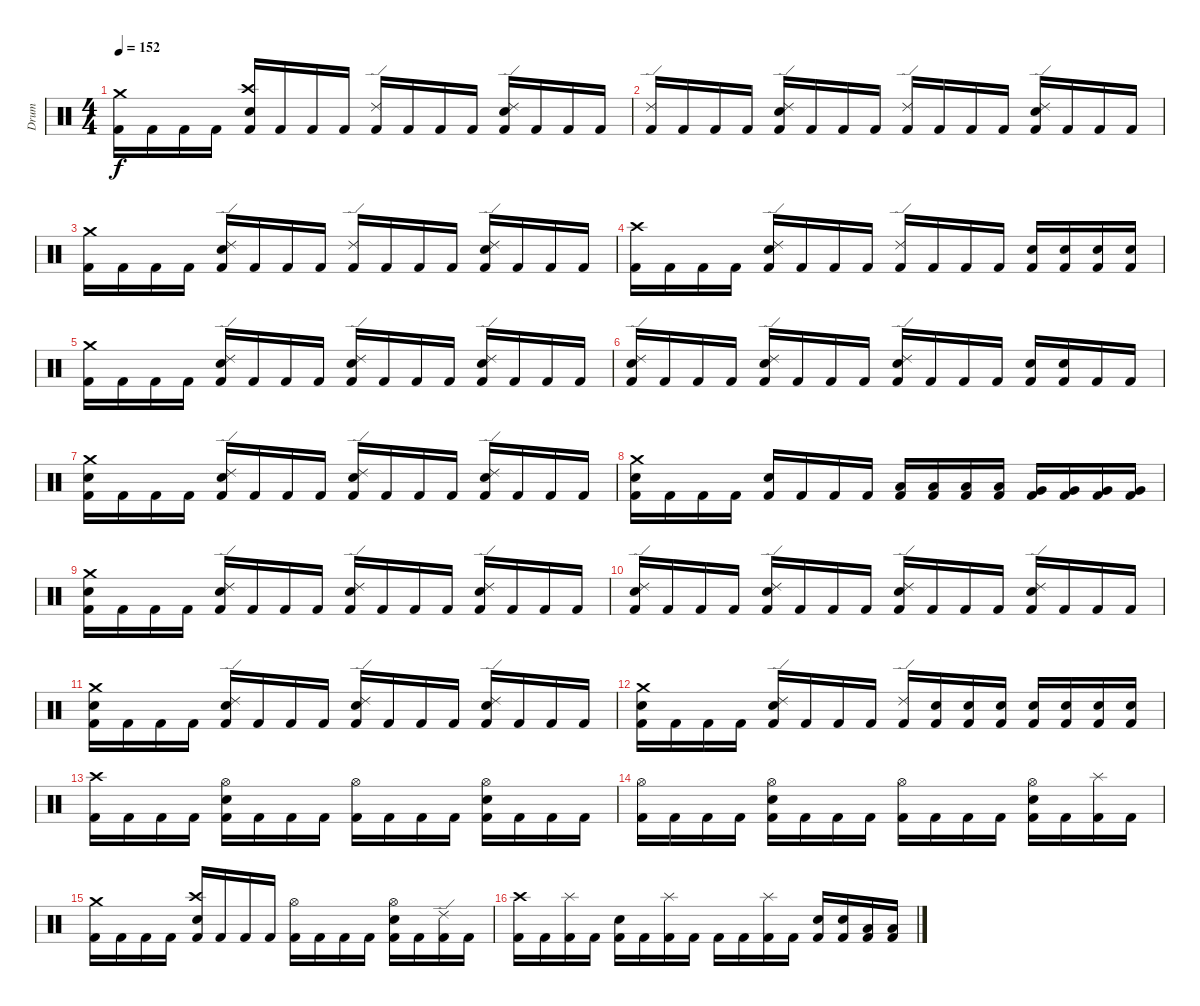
\track ("Drum" "Drum") {instrument percussion}
\staff {score}
\articulation defaults
\ts (4 4)
\tempo 152
\clef neutral
\ks c
("Crash medium (hit)" "Kick (hit) 2").16{dy f} "Kick (hit) 2".16 "Kick (hit) 2".16 "Kick (hit) 2".16 ("Crash high (hit)" "Snare (hit) 2" "Kick (hit) 2").16 "Kick (hit) 2".16 "Kick (hit) 2".16 "Kick (hit) 2".16 ("Ride (edge) 2" "Kick (hit) 2").16 "Kick (hit) 2".16 "Kick (hit) 2".16 "Kick (hit) 2".16 ("Ride (edge) 2" "Snare (hit) 2" "Kick (hit) 2").16 "Kick (hit) 2".16 "Kick (hit) 2".16 "Kick (hit) 2".16 |
("Ride (edge) 2" "Kick (hit) 2").16 "Kick (hit) 2".16 "Kick (hit) 2".16 "Kick (hit) 2".16 ("Ride (edge) 2" "Snare (hit) 2" "Kick (hit) 2").16 "Kick (hit) 2".16 "Kick (hit) 2".16 "Kick (hit) 2".16 ("Ride (edge) 2" "Kick (hit) 2").16 "Kick (hit) 2".16 "Kick (hit) 2".16 "Kick (hit) 2".16 ("Ride (edge) 2" "Snare (hit) 2" "Kick (hit) 2").16 "Kick (hit) 2".16 "Kick (hit) 2".16 "Kick (hit) 2".16 |
("Crash medium (hit)" "Kick (hit) 2").16 "Kick (hit) 2".16 "Kick (hit) 2".16 "Kick (hit) 2".16 ("Ride (edge) 2" "Snare (hit) 2" "Kick (hit) 2").16 "Kick (hit) 2".16 "Kick (hit) 2".16 "Kick (hit) 2".16 ("Ride (edge) 2" "Kick (hit) 2").16 "Kick (hit) 2".16 "Kick (hit) 2".16 "Kick (hit) 2".16 ("Ride (edge) 2" "Snare (hit) 2" "Kick (hit) 2").16 "Kick (hit) 2".16 "Kick (hit) 2".16 "Kick (hit) 2".16 |
("Crash high (hit)" "Kick (hit) 2").16 "Kick (hit) 2".16 "Kick (hit) 2".16 "Kick (hit) 2".16 ("Ride (edge) 2" "Snare (hit) 2" "Kick (hit) 2").16 "Kick (hit) 2".16 "Kick (hit) 2".16 "Kick (hit) 2".16 ("Ride (edge) 2" "Kick (hit) 2").16 "Kick (hit) 2".16 "Kick (hit) 2".16 "Kick (hit) 2".16 ("Snare (hit) 2" "Kick (hit) 2").16 ("Snare (hit) 2" "Kick (hit) 2").16 ("Snare (hit) 2" "Kick (hit) 2").16 ("Snare (hit) 2" "Kick (hit) 2").16 |
("Crash medium (hit)" "Kick (hit) 2").16 "Kick (hit) 2".16 "Kick (hit) 2".16 "Kick (hit) 2".16 ("Ride (edge) 2" "Snare (hit) 2" "Kick (hit) 2").16 "Kick (hit) 2".16 "Kick (hit) 2".16 "Kick (hit) 2".16 ("Ride (edge) 2" "Snare (hit) 2" "Kick (hit) 2").16 "Kick (hit) 2".16 "Kick (hit) 2".16 "Kick (hit) 2".16 ("Ride (edge) 2" "Snare (hit) 2" "Kick (hit) 2").16 "Kick (hit) 2".16 "Kick (hit) 2".16 "Kick (hit) 2".16 |
("Ride (edge) 2" "Snare (hit) 2" "Kick (hit) 2").16 "Kick (hit) 2".16 "Kick (hit) 2".16 "Kick (hit) 2".16 ("Ride (edge) 2" "Snare (hit) 2" "Kick (hit) 2").16 "Kick (hit) 2".16 "Kick (hit) 2".16 "Kick (hit) 2".16 ("Ride (edge) 2" "Snare (hit) 2" "Kick (hit) 2").16 "Kick (hit) 2".16 "Kick (hit) 2".16 "Kick (hit) 2".16 ("Snare (hit) 2" "Kick (hit) 2").16 ("Snare (hit) 2" "Kick (hit) 2").16 "Kick (hit) 2".16 "Kick (hit) 2".16 |
("Crash medium (hit)" "Snare (hit) 2" "Kick (hit) 2").16 "Kick (hit) 2".16 "Kick (hit) 2".16 "Kick (hit) 2".16 ("Ride (edge) 2" "Snare (hit) 2" "Kick (hit) 2").16 "Kick (hit) 2".16 "Kick (hit) 2".16 "Kick (hit) 2".16 ("Ride (edge) 2" "Snare (hit) 2" "Kick (hit) 2").16 "Kick (hit) 2".16 "Kick (hit) 2".16 "Kick (hit) 2".16 ("Ride (edge) 2" "Snare (hit) 2" "Kick (hit) 2").16 "Kick (hit) 2".16 "Kick (hit) 2".16 "Kick (hit) 2".16 |
("Crash medium (hit)" "Snare (hit) 2" "Kick (hit) 2").16 "Kick (hit) 2".16 "Kick (hit) 2".16 "Kick (hit) 2".16 ("Snare (hit) 2" "Kick (hit) 2").16 "Kick (hit) 2".16 "Kick (hit) 2".16 "Kick (hit) 2".16 ("Low Tom (hit)" "Kick (hit) 2").16 ("Low Tom (hit)" "Kick (hit) 2").16 ("Low Tom (hit)" "Kick (hit) 2").16 ("Low Tom (hit)" "Kick (hit) 2").16 ("Very Low Tom (hit)" "Kick (hit) 2").16 ("Very Low Tom (hit)" "Kick (hit) 2").16 ("Very Low Tom (hit)" "Kick (hit) 2").16 ("Very Low Tom (hit)" "Kick (hit) 2").16 |
("Crash medium (hit)" "Snare (hit) 2" "Kick (hit) 2").16 "Kick (hit) 2".16 "Kick (hit) 2".16 "Kick (hit) 2".16 ("Ride (edge) 2" "Snare (hit) 2" "Kick (hit) 2").16 "Kick (hit) 2".16 "Kick (hit) 2".16 "Kick (hit) 2".16 ("Ride (edge) 2" "Snare (hit) 2" "Kick (hit) 2").16 "Kick (hit) 2".16 "Kick (hit) 2".16 "Kick (hit) 2".16 ("Ride (edge) 2" "Snare (hit) 2" "Kick (hit) 2").16 "Kick (hit) 2".16 "Kick (hit) 2".16 "Kick (hit) 2".16 |
("Ride (edge) 2" "Snare (hit) 2" "Kick (hit) 2").16 "Kick (hit) 2".16 "Kick (hit) 2".16 "Kick (hit) 2".16 ("Ride (edge) 2" "Snare (hit) 2" "Kick (hit) 2").16 "Kick (hit) 2".16 "Kick (hit) 2".16 "Kick (hit) 2".16 ("Ride (edge) 2" "Snare (hit) 2" "Kick (hit) 2").16 "Kick (hit) 2".16 "Kick (hit) 2".16 "Kick (hit) 2".16 ("Ride (edge) 2" "Snare (hit) 2" "Kick (hit) 2").16 "Kick (hit) 2".16 "Kick (hit) 2".16 "Kick (hit) 2".16 |
("Crash medium (hit)" "Snare (hit) 2" "Kick (hit) 2").16 "Kick (hit) 2".16 "Kick (hit) 2".16 "Kick (hit) 2".16 ("Ride (edge) 2" "Snare (hit) 2" "Kick (hit) 2").16 "Kick (hit) 2".16 "Kick (hit) 2".16 "Kick (hit) 2".16 ("Ride (edge) 2" "Snare (hit) 2" "Kick (hit) 2").16 "Kick (hit) 2".16 "Kick (hit) 2".16 "Kick (hit) 2".16 ("Ride (edge) 2" "Snare (hit) 2" "Kick (hit) 2").16 "Kick (hit) 2".16 "Kick (hit) 2".16 "Kick (hit) 2".16 |
("Crash medium (hit)" "Snare (hit) 2" "Kick (hit) 2").16 "Kick (hit) 2".16 "Kick (hit) 2".16 "Kick (hit) 2".16 ("Ride (edge) 2" "Snare (hit) 2" "Kick (hit) 2").16 "Kick (hit) 2".16 "Kick (hit) 2".16 "Kick (hit) 2".16 ("Ride (edge) 2" "Kick (hit) 2").16 ("Snare (hit) 2" "Kick (hit) 2").16 ("Snare (hit) 2" "Kick (hit) 2").16 ("Snare (hit) 2" "Kick (hit) 2").16 ("Snare (hit) 2" "Kick (hit) 2").16 ("Snare (hit) 2" "Kick (hit) 2").16 ("Snare (hit) 2" "Kick (hit) 2").16 ("Snare (hit) 2" "Kick (hit) 2").16 |
("Crash high (hit)" "Kick (hit) 2").16 "Kick (hit) 2".16 "Kick (hit) 2".16 "Kick (hit) 2".16 ("Hi-Hat (open)" "Snare (hit) 2" "Kick (hit) 2").16 "Kick (hit) 2".16 "Kick (hit) 2".16 "Kick (hit) 2".16 ("Hi-Hat (open)" "Kick (hit) 2").16 "Kick (hit) 2".16 "Kick (hit) 2".16 "Kick (hit) 2".16 ("Hi-Hat (open)" "Snare (hit) 2" "Kick (hit) 2").16 "Kick (hit) 2".16 "Kick (hit) 2".16 "Kick (hit) 2".16 |
("Hi-Hat (open)" "Kick (hit) 2").16 "Kick (hit) 2".16 "Kick (hit) 2".16 "Kick (hit) 2".16 ("Hi-Hat (open)" "Snare (hit) 2" "Kick (hit) 2").16 "Kick (hit) 2".16 "Kick (hit) 2".16 "Kick (hit) 2".16 ("Hi-Hat (open)" "Kick (hit) 2").16 "Kick (hit) 2".16 "Kick (hit) 2".16 "Kick (hit) 2".16 ("Hi-Hat (open)" "Snare (hit) 2" "Kick (hit) 2").16 "Kick (hit) 2".16 ("Splash (hit)" "Kick (hit) 2").16 "Kick (hit) 2".16 |
("Crash medium (hit)" "Kick (hit) 2").16 "Kick (hit) 2".16 "Kick (hit) 2".16 "Kick (hit) 2".16 ("Crash high (hit)" "Snare (hit) 2" "Kick (hit) 2").16 "Kick (hit) 2".16 "Kick (hit) 2".16 "Kick (hit) 2".16 ("Hi-Hat (open)" "Kick (hit) 2").16 "Kick (hit) 2".16 "Kick (hit) 2".16 "Kick (hit) 2".16 ("Hi-Hat (open)" "Snare (hit) 2" "Kick (hit) 2").16 "Kick (hit) 2".16 ("Ride (edge) 2" "Kick (hit) 2").16 "Kick (hit) 2".16 |
("Crash high (hit)" "Kick (hit) 2").16 "Kick (hit) 2".16 ("Splash (hit)" "Kick (hit) 2").16 "Kick (hit) 2".16 ("Snare (hit) 2" "Kick (hit) 2").16 "Kick (hit) 2".16 ("Splash (hit)" "Kick (hit) 2").16 "Kick (hit) 2".16 "Kick (hit) 2".16 "Kick (hit) 2".16 ("Splash (hit)" "Kick (hit) 2").16 "Kick (hit) 2".16 ("Snare (hit) 2" "Kick (hit) 2").16 ("Snare (hit) 2" "Kick (hit) 2").16 ("Low Tom (hit)" "Kick (hit) 2").16 ("Low Tom (hit)" "Kick (hit) 2").16
